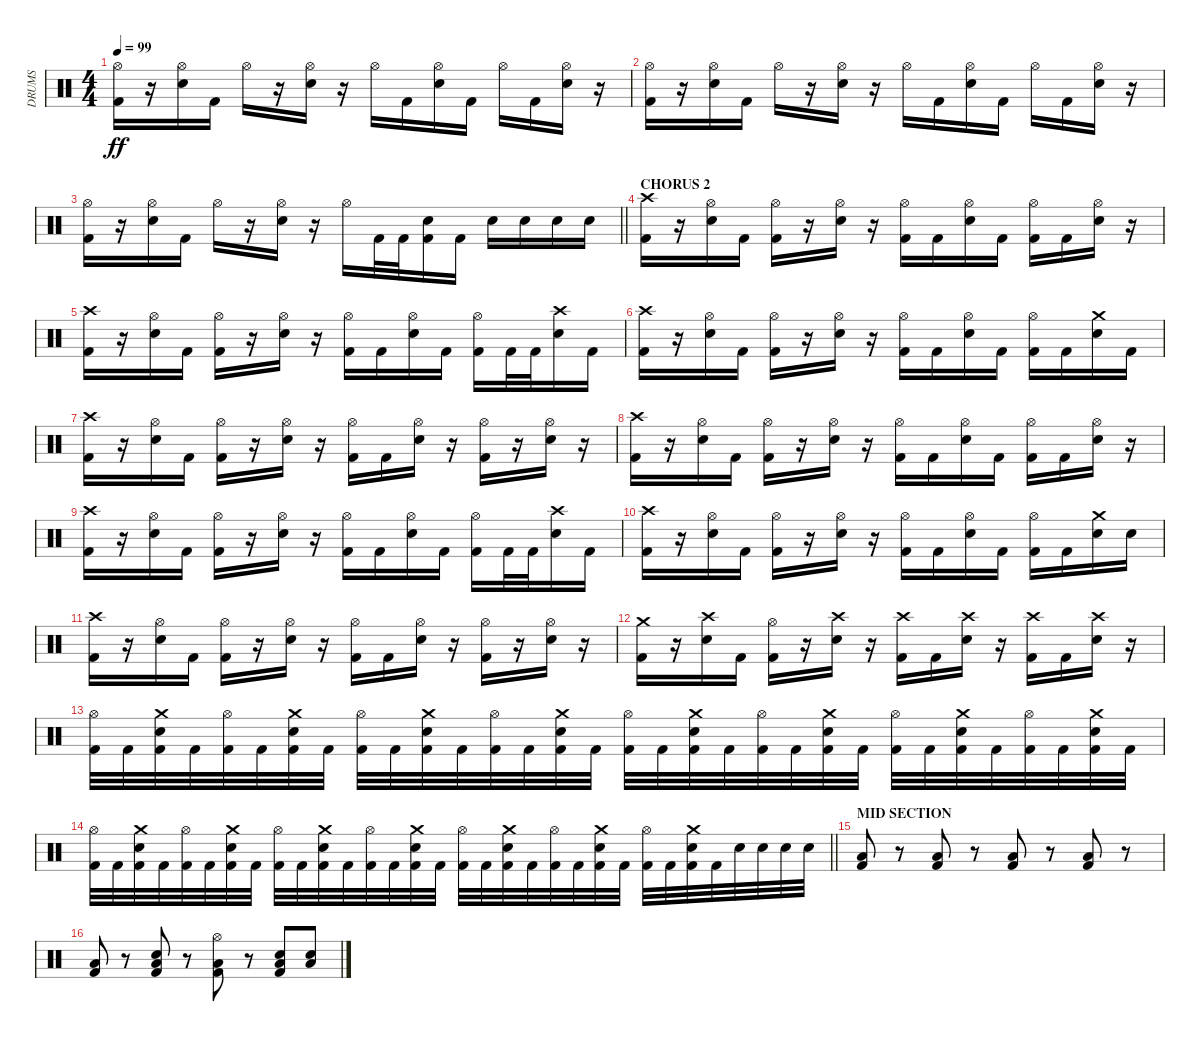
\track ("DRUMS" "DRUMS") {instrument percussion}
\staff {score}
\articulation defaults
\ts (4 4)
\tempo 99
\clef neutral
\ks c
("Hi-Hat (open)" "Kick (hit) 2").16{dy ff} r.16 ("Hi-Hat (open)" "Electric Snare (hit)").16 "Kick (hit) 2".16 "Hi-Hat (open)".16 r.16 ("Hi-Hat (open)" "Electric Snare (hit)").16 r.16 "Hi-Hat (open)".16 "Kick (hit) 2".16 ("Hi-Hat (open)" "Electric Snare (hit)").16 "Kick (hit) 2".16 "Hi-Hat (open)".16 "Kick (hit) 2".16 ("Hi-Hat (open)" "Electric Snare (hit)").16 r.16 |
("Hi-Hat (open)" "Kick (hit) 2").16 r.16 ("Hi-Hat (open)" "Electric Snare (hit)").16 "Kick (hit) 2".16 "Hi-Hat (open)".16 r.16 ("Hi-Hat (open)" "Electric Snare (hit)").16 r.16 "Hi-Hat (open)".16 "Kick (hit) 2".16 ("Hi-Hat (open)" "Electric Snare (hit)").16 "Kick (hit) 2".16 "Hi-Hat (open)".16 "Kick (hit) 2".16 ("Hi-Hat (open)" "Electric Snare (hit)").16 r.16 |
\barLineRight lightlight
("Hi-Hat (open)" "Kick (hit) 2").16 r.16 ("Hi-Hat (open)" "Electric Snare (hit)").16 "Kick (hit) 2".16 "Hi-Hat (open)".16 r.16 ("Hi-Hat (open)" "Electric Snare (hit)").16 r.16 "Hi-Hat (open)".16 "Kick (hit) 2".32 "Kick (hit) 2".32 ("Electric Snare (hit)" "Kick (hit) 2").16 "Kick (hit) 2".16 "Electric Snare (hit)".16 "Electric Snare (hit)".16 "Electric Snare (hit)".16 "Electric Snare (hit)".16 |
\section ("" "CHORUS 2")
("Crash high (hit)" "Kick (hit) 2").16 r.16 ("Hi-Hat (open)" "Electric Snare (hit)").16 "Kick (hit) 2".16 ("Hi-Hat (open)" "Kick (hit) 2").16 r.16 ("Hi-Hat (open)" "Electric Snare (hit)").16 r.16 ("Hi-Hat (open)" "Kick (hit) 2").16 "Kick (hit) 2".16 ("Hi-Hat (open)" "Electric Snare (hit)").16 "Kick (hit) 2".16 ("Hi-Hat (open)" "Kick (hit) 2").16 "Kick (hit) 2".16 ("Hi-Hat (open)" "Electric Snare (hit)").16 r.16 |
("Crash high (hit)" "Kick (hit) 2").16 r.16 ("Hi-Hat (open)" "Electric Snare (hit)").16 "Kick (hit) 2".16 ("Hi-Hat (open)" "Kick (hit) 2").16 r.16 ("Hi-Hat (open)" "Electric Snare (hit)").16 r.16 ("Hi-Hat (open)" "Kick (hit) 2").16 "Kick (hit) 2".16 ("Hi-Hat (open)" "Electric Snare (hit)").16 "Kick (hit) 2".16 ("Hi-Hat (open)" "Kick (hit) 2").16 "Kick (hit) 2".32 "Kick (hit) 2".32 ("Crash high (hit)" "Electric Snare (hit)").16 "Kick (hit) 2".16 |
("Crash high (hit)" "Kick (hit) 2").16 r.16 ("Hi-Hat (open)" "Electric Snare (hit)").16 "Kick (hit) 2".16 ("Hi-Hat (open)" "Kick (hit) 2").16 r.16 ("Hi-Hat (open)" "Electric Snare (hit)").16 r.16 ("Hi-Hat (open)" "Kick (hit) 2").16 "Kick (hit) 2".16 ("Hi-Hat (open)" "Electric Snare (hit)").16 "Kick (hit) 2".16 ("Hi-Hat (open)" "Kick (hit) 2").16 "Kick (hit) 2".16 ("Crash medium (hit)" "Electric Snare (hit)").16 "Kick (hit) 2".16 |
("Crash high (hit)" "Kick (hit) 2").16 r.16 ("Hi-Hat (open)" "Electric Snare (hit)").16 "Kick (hit) 2".16 ("Hi-Hat (open)" "Kick (hit) 2").16 r.16 ("Hi-Hat (open)" "Electric Snare (hit)").16 r.16 ("Hi-Hat (open)" "Kick (hit) 2").16 "Kick (hit) 2".16 ("Hi-Hat (open)" "Electric Snare (hit)").16 r.16 ("Hi-Hat (open)" "Kick (hit) 2").16 r.16 ("Hi-Hat (open)" "Electric Snare (hit)").16 r.16 |
("Crash high (hit)" "Kick (hit) 2").16 r.16 ("Hi-Hat (open)" "Electric Snare (hit)").16 "Kick (hit) 2".16 ("Hi-Hat (open)" "Kick (hit) 2").16 r.16 ("Hi-Hat (open)" "Electric Snare (hit)").16 r.16 ("Hi-Hat (open)" "Kick (hit) 2").16 "Kick (hit) 2".16 ("Hi-Hat (open)" "Electric Snare (hit)").16 "Kick (hit) 2".16 ("Hi-Hat (open)" "Kick (hit) 2").16 "Kick (hit) 2".16 ("Hi-Hat (open)" "Electric Snare (hit)").16 r.16 |
("Crash high (hit)" "Kick (hit) 2").16 r.16 ("Hi-Hat (open)" "Electric Snare (hit)").16 "Kick (hit) 2".16 ("Hi-Hat (open)" "Kick (hit) 2").16 r.16 ("Hi-Hat (open)" "Electric Snare (hit)").16 r.16 ("Hi-Hat (open)" "Kick (hit) 2").16 "Kick (hit) 2".16 ("Hi-Hat (open)" "Electric Snare (hit)").16 "Kick (hit) 2".16 ("Hi-Hat (open)" "Kick (hit) 2").16 "Kick (hit) 2".32 "Kick (hit) 2".32 ("Crash high (hit)" "Electric Snare (hit)").16 "Kick (hit) 2".16 |
("Crash high (hit)" "Kick (hit) 2").16 r.16 ("Hi-Hat (open)" "Electric Snare (hit)").16 "Kick (hit) 2".16 ("Hi-Hat (open)" "Kick (hit) 2").16 r.16 ("Hi-Hat (open)" "Electric Snare (hit)").16 r.16 ("Hi-Hat (open)" "Kick (hit) 2").16 "Kick (hit) 2".16 ("Hi-Hat (open)" "Electric Snare (hit)").16 "Kick (hit) 2".16 ("Hi-Hat (open)" "Kick (hit) 2").16 "Kick (hit) 2".16 ("Crash medium (hit)" "Electric Snare (hit)").16 "Electric Snare (hit)".16 |
("Crash high (hit)" "Kick (hit) 2").16 r.16 ("Hi-Hat (open)" "Electric Snare (hit)").16 "Kick (hit) 2".16 ("Hi-Hat (open)" "Kick (hit) 2").16 r.16 ("Hi-Hat (open)" "Electric Snare (hit)").16 r.16 ("Hi-Hat (open)" "Kick (hit) 2").16 "Kick (hit) 2".16 ("Hi-Hat (open)" "Electric Snare (hit)").16 r.16 ("Hi-Hat (open)" "Kick (hit) 2").16 r.16 ("Hi-Hat (open)" "Electric Snare (hit)").16 r.16 |
("Crash medium (hit)" "Kick (hit) 2").16 r.16 ("Crash high (hit)" "Electric Snare (hit)").16 "Kick (hit) 2".16 ("Hi-Hat (open)" "Kick (hit) 2").16 r.16 ("Crash high (hit)" "Electric Snare (hit)").16 r.16 ("Crash high (hit)" "Kick (hit) 2").16 "Kick (hit) 2".16 ("Crash high (hit)" "Electric Snare (hit)").16 r.16 ("Crash high (hit)" "Kick (hit) 2").16 "Kick (hit) 2".16 ("Crash high (hit)" "Electric Snare (hit)").16 r.16 |
("Hi-Hat (open)" "Kick (hit) 2").32 "Kick (hit) 2".32 ("Crash medium (hit)" "Electric Snare (hit)" "Kick (hit) 2").32 "Kick (hit) 2".32 ("Hi-Hat (open)" "Kick (hit) 2").32 "Kick (hit) 2".32 ("Crash medium (hit)" "Electric Snare (hit)" "Kick (hit) 2").32 "Kick (hit) 2".32 ("Hi-Hat (open)" "Kick (hit) 2").32 "Kick (hit) 2".32 ("Crash medium (hit)" "Electric Snare (hit)" "Kick (hit) 2").32 "Kick (hit) 2".32 ("Hi-Hat (open)" "Kick (hit) 2").32 "Kick (hit) 2".32 ("Crash medium (hit)" "Electric Snare (hit)" "Kick (hit) 2").32 "Kick (hit) 2".32 ("Hi-Hat (open)" "Kick (hit) 2").32 "Kick (hit) 2".32 ("Crash medium (hit)" "Electric Snare (hit)" "Kick (hit) 2").32 "Kick (hit) 2".32 ("Hi-Hat (open)" "Kick (hit) 2").32 "Kick (hit) 2".32 ("Crash medium (hit)" "Electric Snare (hit)" "Kick (hit) 2").32 "Kick (hit) 2".32 ("Hi-Hat (open)" "Kick (hit) 2").32 "Kick (hit) 2".32 ("Crash medium (hit)" "Electric Snare (hit)" "Kick (hit) 2").32 "Kick (hit) 2".32 ("Hi-Hat (open)" "Kick (hit) 2").32 "Kick (hit) 2".32 ("Crash medium (hit)" "Electric Snare (hit)" "Kick (hit) 2").32 "Kick (hit) 2".32 |
\barLineRight lightlight
("Hi-Hat (open)" "Kick (hit) 2").32 "Kick (hit) 2".32 ("Crash medium (hit)" "Electric Snare (hit)" "Kick (hit) 2").32 "Kick (hit) 2".32 ("Hi-Hat (open)" "Kick (hit) 2").32 "Kick (hit) 2".32 ("Crash medium (hit)" "Electric Snare (hit)" "Kick (hit) 2").32 "Kick (hit) 2".32 ("Hi-Hat (open)" "Kick (hit) 2").32 "Kick (hit) 2".32 ("Crash medium (hit)" "Electric Snare (hit)" "Kick (hit) 2").32 "Kick (hit) 2".32 ("Hi-Hat (open)" "Kick (hit) 2").32 "Kick (hit) 2".32 ("Crash medium (hit)" "Electric Snare (hit)" "Kick (hit) 2").32 "Kick (hit) 2".32 ("Hi-Hat (open)" "Kick (hit) 2").32 "Kick (hit) 2".32 ("Crash medium (hit)" "Electric Snare (hit)" "Kick (hit) 2").32 "Kick (hit) 2".32 ("Hi-Hat (open)" "Kick (hit) 2").32 "Kick (hit) 2".32 ("Crash medium (hit)" "Electric Snare (hit)" "Kick (hit) 2").32 "Kick (hit) 2".32 ("Hi-Hat (open)" "Kick (hit) 2").32 "Kick (hit) 2".32 ("Crash medium (hit)" "Electric Snare (hit)" "Kick (hit) 2").32 "Kick (hit) 2".32 "Electric Snare (hit)".32 "Electric Snare (hit)".32 "Electric Snare (hit)".32 "Electric Snare (hit)".32 |
\section ("" "MID SECTION")
("Low Floor Tom (hit)" "Kick (hit) 2").8 r.8 ("Low Floor Tom (hit)" "Kick (hit) 2").8 r.8 ("Low Floor Tom (hit)" "Kick (hit) 2").8 r.8 ("Low Floor Tom (hit)" "Kick (hit) 2").8 r.8 |
("Low Floor Tom (hit)" "Kick (hit) 2").8 r.8 ("Snare (hit) 2" "Low Floor Tom (hit)" "Kick (hit) 2").8 r.8 ("Hi-Hat (open)" "Low Floor Tom (hit)" "Kick (hit) 2").8 r.8 ("Snare (hit) 2" "Low Floor Tom (hit)" "Kick (hit) 2").8 ("Snare (hit) 2" "Low Floor Tom (hit)").8
